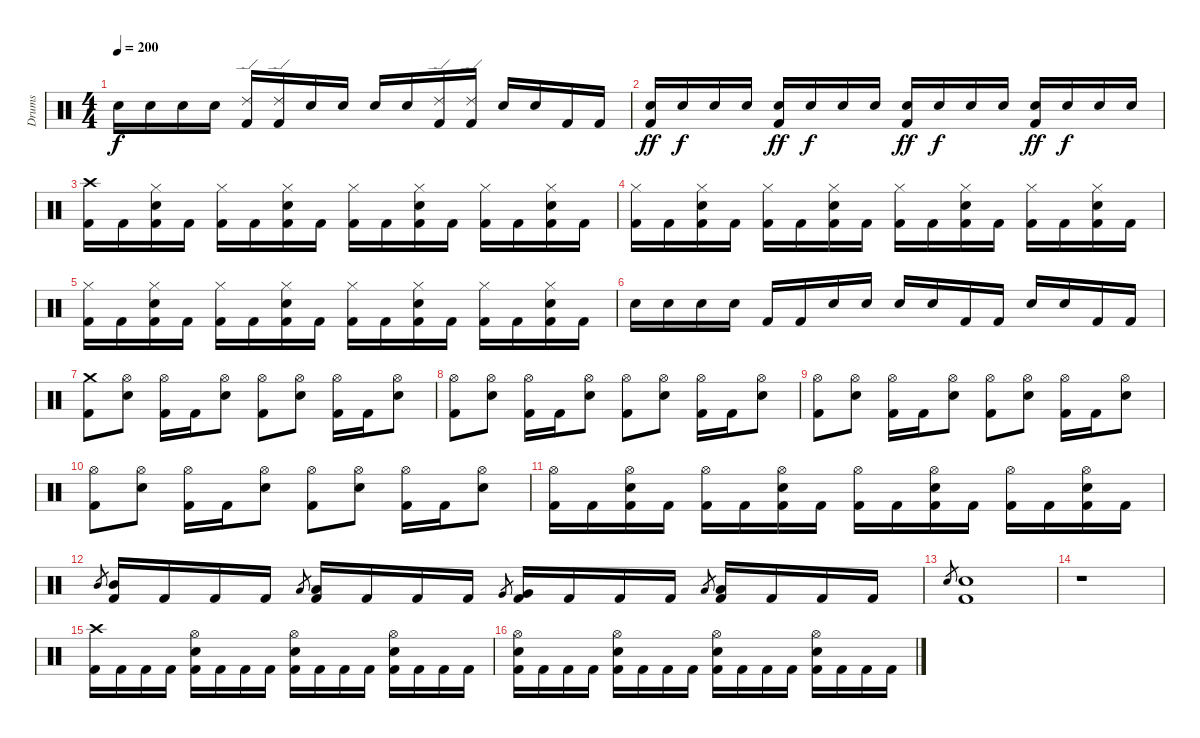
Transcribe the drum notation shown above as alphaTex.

\track ("Drums" "Drums") {instrument percussion}
\staff {score}
\articulation defaults
\ts (4 4)
\tempo 200
\clef neutral
\ks c "Snare (hit) 2".16{dy f} "Snare (hit) 2".16 "Snare (hit) 2".16 "Snare (hit) 2".16
("Kick (hit) 2" "Ride (edge) 2").16 ("Kick (hit) 2" "Ride (edge) 2").16 "Snare (hit) 2".16 "Snare (hit) 2".16 "Snare (hit) 2".16 "Snare (hit) 2".16 ("Kick (hit) 2" "Ride (edge) 2").16 ("Kick (hit) 2" "Ride (edge) 2").16 "Snare (hit) 2".16 "Snare (hit) 2".16 "Kick (hit) 2".16 "Kick (hit) 2".16 |
("Kick (hit) 2" "Snare (hit) 2").16{dy ff} "Snare (hit) 2".16{dy f} "Snare (hit) 2".16 "Snare (hit) 2".16 ("Kick (hit) 2" "Snare (hit) 2").16{dy ff} "Snare (hit) 2".16{dy f} "Snare (hit) 2".16 "Snare (hit) 2".16 ("Kick (hit) 2" "Snare (hit) 2").16{dy ff} "Snare (hit) 2".16{dy f} "Snare (hit) 2".16 "Snare (hit) 2".16 ("Kick (hit) 2" "Snare (hit) 2").16{dy ff} "Snare (hit) 2".16{dy f} "Snare (hit) 2".16 "Snare (hit) 2".16 |
("Kick (hit) 2" "Crash high (hit)").16 "Kick (hit) 2".16 ("Kick (hit) 2" "Snare (hit) 2" "Hi-Hat (closed)").16 "Kick (hit) 2".16 ("Kick (hit) 2" "Hi-Hat (closed)").16 "Kick (hit) 2".16 ("Kick (hit) 2" "Snare (hit) 2" "Hi-Hat (closed)").16 "Kick (hit) 2".16 ("Kick (hit) 2" "Hi-Hat (closed)").16 "Kick (hit) 2".16 ("Kick (hit) 2" "Snare (hit) 2" "Hi-Hat (closed)").16 "Kick (hit) 2".16 ("Kick (hit) 2" "Hi-Hat (closed)").16 "Kick (hit) 2".16 ("Kick (hit) 2" "Snare (hit) 2" "Hi-Hat (closed)").16 "Kick (hit) 2".16 |
("Kick (hit) 2" "Hi-Hat (closed)").16 "Kick (hit) 2".16 ("Kick (hit) 2" "Snare (hit) 2" "Hi-Hat (closed)").16 "Kick (hit) 2".16 ("Kick (hit) 2" "Hi-Hat (closed)").16 "Kick (hit) 2".16 ("Kick (hit) 2" "Snare (hit) 2" "Hi-Hat (closed)").16 "Kick (hit) 2".16 ("Kick (hit) 2" "Hi-Hat (closed)").16 "Kick (hit) 2".16 ("Kick (hit) 2" "Snare (hit) 2" "Hi-Hat (closed)").16 "Kick (hit) 2".16 ("Kick (hit) 2" "Hi-Hat (closed)").16 "Kick (hit) 2".16 ("Kick (hit) 2" "Snare (hit) 2" "Hi-Hat (closed)").16 "Kick (hit) 2".16 |
("Kick (hit) 2" "Hi-Hat (closed)").16 "Kick (hit) 2".16 ("Kick (hit) 2" "Snare (hit) 2" "Hi-Hat (closed)").16 "Kick (hit) 2".16 ("Kick (hit) 2" "Hi-Hat (closed)").16 "Kick (hit) 2".16 ("Kick (hit) 2" "Snare (hit) 2" "Hi-Hat (closed)").16 "Kick (hit) 2".16 ("Kick (hit) 2" "Hi-Hat (closed)").16 "Kick (hit) 2".16 ("Kick (hit) 2" "Snare (hit) 2" "Hi-Hat (closed)").16 "Kick (hit) 2".16 ("Kick (hit) 2" "Hi-Hat (closed)").16 "Kick (hit) 2".16 ("Kick (hit) 2" "Snare (hit) 2" "Hi-Hat (closed)").16 "Kick (hit) 2".16 |
"Snare (hit) 2".16 "Snare (hit) 2".16 "Snare (hit) 2".16 "Snare (hit) 2".16 "Kick (hit) 2".16 "Kick (hit) 2".16 "Snare (hit) 2".16 "Snare (hit) 2".16 "Snare (hit) 2".16 "Snare (hit) 2".16 "Kick (hit) 2".16 "Kick (hit) 2".16 "Snare (hit) 2".16 "Snare (hit) 2".16 "Kick (hit) 2".16 "Kick (hit) 2".16 |
("Kick (hit) 2" "Crash medium (hit)").8 ("Snare (hit) 2" "Hi-Hat (open)").8 ("Kick (hit) 2" "Hi-Hat (open)").16 "Kick (hit) 2".16 ("Snare (hit) 2" "Hi-Hat (open)").8 ("Kick (hit) 2" "Hi-Hat (open)").8 ("Snare (hit) 2" "Hi-Hat (open)").8 ("Kick (hit) 2" "Hi-Hat (open)").16 "Kick (hit) 2".16 ("Snare (hit) 2" "Hi-Hat (open)").8 |
("Kick (hit) 2" "Hi-Hat (open)").8 ("Snare (hit) 2" "Hi-Hat (open)").8 ("Kick (hit) 2" "Hi-Hat (open)").16 "Kick (hit) 2".16 ("Snare (hit) 2" "Hi-Hat (open)").8 ("Kick (hit) 2" "Hi-Hat (open)").8 ("Snare (hit) 2" "Hi-Hat (open)").8 ("Kick (hit) 2" "Hi-Hat (open)").16 "Kick (hit) 2".16 ("Snare (hit) 2" "Hi-Hat (open)").8 |
("Kick (hit) 2" "Hi-Hat (open)").8 ("Snare (hit) 2" "Hi-Hat (open)").8 ("Kick (hit) 2" "Hi-Hat (open)").16 "Kick (hit) 2".16 ("Snare (hit) 2" "Hi-Hat (open)").8 ("Kick (hit) 2" "Hi-Hat (open)").8 ("Snare (hit) 2" "Hi-Hat (open)").8 ("Kick (hit) 2" "Hi-Hat (open)").16 "Kick (hit) 2".16 ("Snare (hit) 2" "Hi-Hat (open)").8 |
("Kick (hit) 2" "Hi-Hat (open)").8 ("Snare (hit) 2" "Hi-Hat (open)").8 ("Kick (hit) 2" "Hi-Hat (open)").16 "Kick (hit) 2".16 ("Snare (hit) 2" "Hi-Hat (open)").8 ("Kick (hit) 2" "Hi-Hat (open)").8 ("Snare (hit) 2" "Hi-Hat (open)").8 ("Kick (hit) 2" "Hi-Hat (open)").16 "Kick (hit) 2".16 ("Snare (hit) 2" "Hi-Hat (open)").8 |
("Kick (hit) 2" "Hi-Hat (open)").16 "Kick (hit) 2".16 ("Kick (hit) 2" "Snare (hit) 2" "Hi-Hat (open)").16 "Kick (hit) 2".16 ("Kick (hit) 2" "Hi-Hat (open)").16 "Kick (hit) 2".16 ("Kick (hit) 2" "Snare (hit) 2" "Hi-Hat (open)").16 "Kick (hit) 2".16 ("Kick (hit) 2" "Hi-Hat (open)").16 "Kick (hit) 2".16 ("Kick (hit) 2" "Snare (hit) 2" "Hi-Hat (open)").16 "Kick (hit) 2".16 ("Kick (hit) 2" "Hi-Hat (open)").16 "Kick (hit) 2".16 ("Kick (hit) 2" "Snare (hit) 2" "Hi-Hat (open)").16 "Kick (hit) 2".16 |
"Mid Tom (hit)".8{gr} ("Kick (hit) 2" "Mid Tom (hit)").16 "Kick (hit) 2".16 "Kick (hit) 2".16 "Kick (hit) 2".16 "Low Tom (hit)".8{gr} ("Kick (hit) 2" "Low Tom (hit)").16 "Kick (hit) 2".16 "Kick (hit) 2".16 "Kick (hit) 2".16 "Very Low Tom (hit)".8{gr} ("Kick (hit) 2" "Very Low Tom (hit)").16 "Kick (hit) 2".16 "Kick (hit) 2".16 "Kick (hit) 2".16 "Low Floor Tom (hit)".8{gr} ("Kick (hit) 2" "Low Floor Tom (hit)").16 "Kick (hit) 2".16 "Kick (hit) 2".16 "Kick (hit) 2".16 |
"Snare (hit) 2".8{gr} ("Kick (hit) 2" "Snare (hit) 2").1 |
r.1 |
("Kick (hit) 2" "Crash high (hit)").16 "Kick (hit) 2".16 "Kick (hit) 2".16 "Kick (hit) 2".16 ("Kick (hit) 2" "Snare (hit) 2" "Hi-Hat (open)").16 "Kick (hit) 2".16 "Kick (hit) 2".16 "Kick (hit) 2".16 ("Kick (hit) 2" "Snare (hit) 2" "Hi-Hat (open)").16 "Kick (hit) 2".16 "Kick (hit) 2".16 "Kick (hit) 2".16 ("Kick (hit) 2" "Snare (hit) 2" "Hi-Hat (open)").16 "Kick (hit) 2".16 "Kick (hit) 2".16 "Kick (hit) 2".16 |
("Kick (hit) 2" "Snare (hit) 2" "Hi-Hat (open)").16 "Kick (hit) 2".16 "Kick (hit) 2".16 "Kick (hit) 2".16 ("Kick (hit) 2" "Snare (hit) 2" "Hi-Hat (open)").16 "Kick (hit) 2".16 "Kick (hit) 2".16 "Kick (hit) 2".16 ("Kick (hit) 2" "Snare (hit) 2" "Hi-Hat (open)").16 "Kick (hit) 2".16 "Kick (hit) 2".16 "Kick (hit) 2".16 ("Kick (hit) 2" "Snare (hit) 2" "Hi-Hat (open)").16 "Kick (hit) 2".16 "Kick (hit) 2".16 "Kick (hit) 2".16
